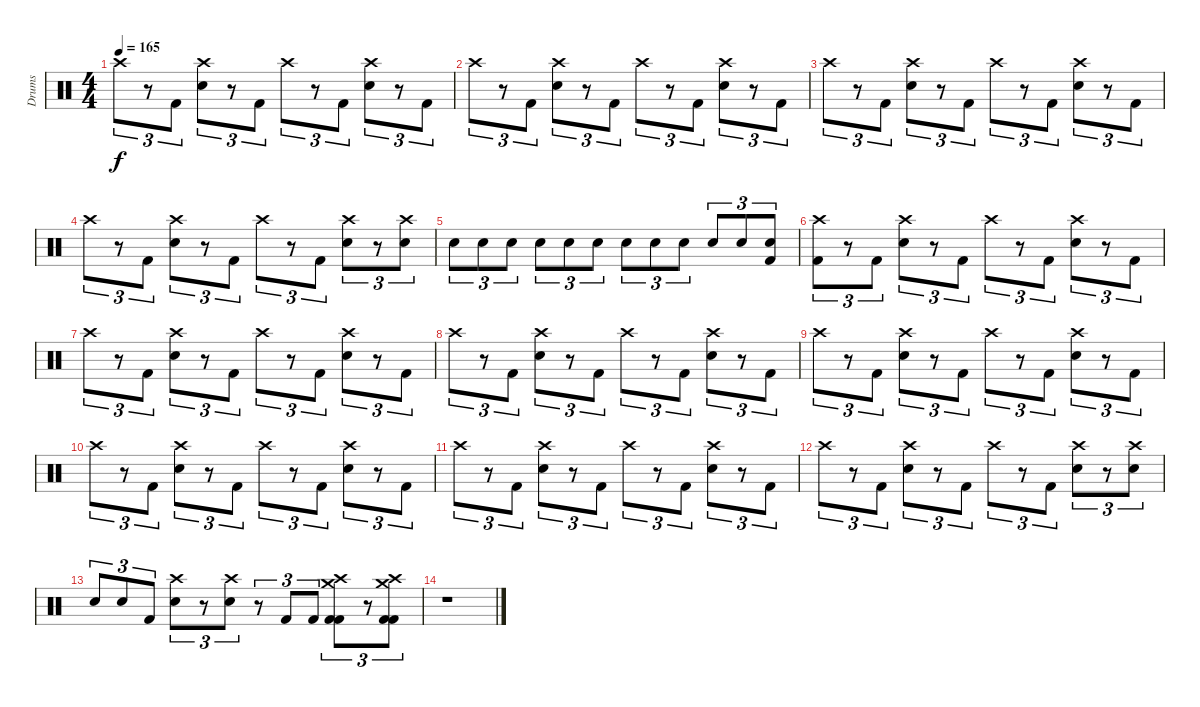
\track ("Drums" "Drums") {instrument percussion}
\staff {score}
\articulation defaults
\ts (4 4)
\tempo 165
\clef neutral
\ks c "Crash high (hit)".8{tu (3 2) dy f}
r.8{tu (3 2)} "Kick (hit) 2".8{tu (3 2)} ("Crash high (hit)" "Snare (hit) 2").8{tu (3 2)} r.8{tu (3 2)} "Kick (hit) 2".8{tu (3 2)} "Crash high (hit)".8{tu (3 2)} r.8{tu (3 2)} "Kick (hit) 2".8{tu (3 2)} ("Crash high (hit)" "Snare (hit) 2").8{tu (3 2)} r.8{tu (3 2)} "Kick (hit) 2".8{tu (3 2)} |
"Crash high (hit)".8{tu (3 2)} r.8{tu (3 2)} "Kick (hit) 2".8{tu (3 2)} ("Crash high (hit)" "Snare (hit) 2").8{tu (3 2)} r.8{tu (3 2)} "Kick (hit) 2".8{tu (3 2)} "Crash high (hit)".8{tu (3 2)} r.8{tu (3 2)} "Kick (hit) 2".8{tu (3 2)} ("Crash high (hit)" "Snare (hit) 2").8{tu (3 2)} r.8{tu (3 2)} "Kick (hit) 2".8{tu (3 2)} |
"Crash high (hit)".8{tu (3 2)} r.8{tu (3 2)} "Kick (hit) 2".8{tu (3 2)} ("Crash high (hit)" "Snare (hit) 2").8{tu (3 2)} r.8{tu (3 2)} "Kick (hit) 2".8{tu (3 2)} "Crash high (hit)".8{tu (3 2)} r.8{tu (3 2)} "Kick (hit) 2".8{tu (3 2)} ("Crash high (hit)" "Snare (hit) 2").8{tu (3 2)} r.8{tu (3 2)} "Kick (hit) 2".8{tu (3 2)} |
"Crash high (hit)".8{tu (3 2)} r.8{tu (3 2)} "Kick (hit) 2".8{tu (3 2)} ("Crash high (hit)" "Snare (hit) 2").8{tu (3 2)} r.8{tu (3 2)} "Kick (hit) 2".8{tu (3 2)} "Crash high (hit)".8{tu (3 2)} r.8{tu (3 2)} "Kick (hit) 2".8{tu (3 2)} ("Crash high (hit)" "Snare (hit) 2").8{tu (3 2)} r.8{tu (3 2)} ("Crash high (hit)" "Snare (hit) 2").8{tu (3 2)} |
"Snare (hit) 2".8{tu (3 2)} "Snare (hit) 2".8{tu (3 2)} "Snare (hit) 2".8{tu (3 2)} "Snare (hit) 2".8{tu (3 2)} "Snare (hit) 2".8{tu (3 2)} "Snare (hit) 2".8{tu (3 2)} "Snare (hit) 2".8{tu (3 2)} "Snare (hit) 2".8{tu (3 2)} "Snare (hit) 2".8{tu (3 2)} "Snare (hit) 2".8{tu (3 2)} "Snare (hit) 2".8{tu (3 2)} ("Snare (hit) 2" "Kick (hit) 2").8{tu (3 2)} |
("Crash high (hit)" "Kick (hit) 2").8{tu (3 2)} r.8{tu (3 2)} "Kick (hit) 2".8{tu (3 2)} ("Crash high (hit)" "Snare (hit) 2").8{tu (3 2)} r.8{tu (3 2)} "Kick (hit) 2".8{tu (3 2)} "Crash high (hit)".8{tu (3 2)} r.8{tu (3 2)} "Kick (hit) 2".8{tu (3 2)} ("Crash high (hit)" "Snare (hit) 2").8{tu (3 2)} r.8{tu (3 2)} "Kick (hit) 2".8{tu (3 2)} |
"Crash high (hit)".8{tu (3 2)} r.8{tu (3 2)} "Kick (hit) 2".8{tu (3 2)} ("Crash high (hit)" "Snare (hit) 2").8{tu (3 2)} r.8{tu (3 2)} "Kick (hit) 2".8{tu (3 2)} "Crash high (hit)".8{tu (3 2)} r.8{tu (3 2)} "Kick (hit) 2".8{tu (3 2)} ("Crash high (hit)" "Snare (hit) 2").8{tu (3 2)} r.8{tu (3 2)} "Kick (hit) 2".8{tu (3 2)} |
"Crash high (hit)".8{tu (3 2)} r.8{tu (3 2)} "Kick (hit) 2".8{tu (3 2)} ("Crash high (hit)" "Snare (hit) 2").8{tu (3 2)} r.8{tu (3 2)} "Kick (hit) 2".8{tu (3 2)} "Crash high (hit)".8{tu (3 2)} r.8{tu (3 2)} "Kick (hit) 2".8{tu (3 2)} ("Crash high (hit)" "Snare (hit) 2").8{tu (3 2)} r.8{tu (3 2)} "Kick (hit) 2".8{tu (3 2)} |
"Crash high (hit)".8{tu (3 2)} r.8{tu (3 2)} "Kick (hit) 2".8{tu (3 2)} ("Crash high (hit)" "Snare (hit) 2").8{tu (3 2)} r.8{tu (3 2)} "Kick (hit) 2".8{tu (3 2)} "Crash high (hit)".8{tu (3 2)} r.8{tu (3 2)} "Kick (hit) 2".8{tu (3 2)} ("Crash high (hit)" "Snare (hit) 2").8{tu (3 2)} r.8{tu (3 2)} "Kick (hit) 2".8{tu (3 2)} |
"Crash high (hit)".8{tu (3 2)} r.8{tu (3 2)} "Kick (hit) 2".8{tu (3 2)} ("Crash high (hit)" "Snare (hit) 2").8{tu (3 2)} r.8{tu (3 2)} "Kick (hit) 2".8{tu (3 2)} "Crash high (hit)".8{tu (3 2)} r.8{tu (3 2)} "Kick (hit) 2".8{tu (3 2)} ("Crash high (hit)" "Snare (hit) 2").8{tu (3 2)} r.8{tu (3 2)} "Kick (hit) 2".8{tu (3 2)} |
"Crash high (hit)".8{tu (3 2)} r.8{tu (3 2)} "Kick (hit) 2".8{tu (3 2)} ("Crash high (hit)" "Snare (hit) 2").8{tu (3 2)} r.8{tu (3 2)} "Kick (hit) 2".8{tu (3 2)} "Crash high (hit)".8{tu (3 2)} r.8{tu (3 2)} "Kick (hit) 2".8{tu (3 2)} ("Crash high (hit)" "Snare (hit) 2").8{tu (3 2)} r.8{tu (3 2)} "Kick (hit) 2".8{tu (3 2)} |
"Crash high (hit)".8{tu (3 2)} r.8{tu (3 2)} "Kick (hit) 2".8{tu (3 2)} ("Crash high (hit)" "Snare (hit) 2").8{tu (3 2)} r.8{tu (3 2)} "Kick (hit) 2".8{tu (3 2)} "Crash high (hit)".8{tu (3 2)} r.8{tu (3 2)} "Kick (hit) 2".8{tu (3 2)} ("Crash high (hit)" "Snare (hit) 2").8{tu (3 2)} r.8{tu (3 2)} ("Crash high (hit)" "Snare (hit) 2").8{tu (3 2)} |
"Snare (hit) 2".8{tu (3 2)} "Snare (hit) 2".8{tu (3 2)} "Kick (hit) 2".8{tu (3 2)} ("Crash high (hit)" "Snare (hit) 2").8{tu (3 2)} r.8{tu (3 2)} ("Crash high (hit)" "Snare (hit) 2").8{tu (3 2)} r.8{tu (3 2)} "Kick (hit) 2".8{tu (3 2)} "Kick (hit) 2".8{tu (3 2)} ("Crash high (hit)" "Crash medium (hit)" "Kick (hit) 2" "Kick (hit) 2").8{tu (3 2)} r.8{tu (3 2)} ("Crash high (hit)" "Crash medium (hit)" "Kick (hit) 2" "Kick (hit) 2").8{tu (3 2)} |
r.1
